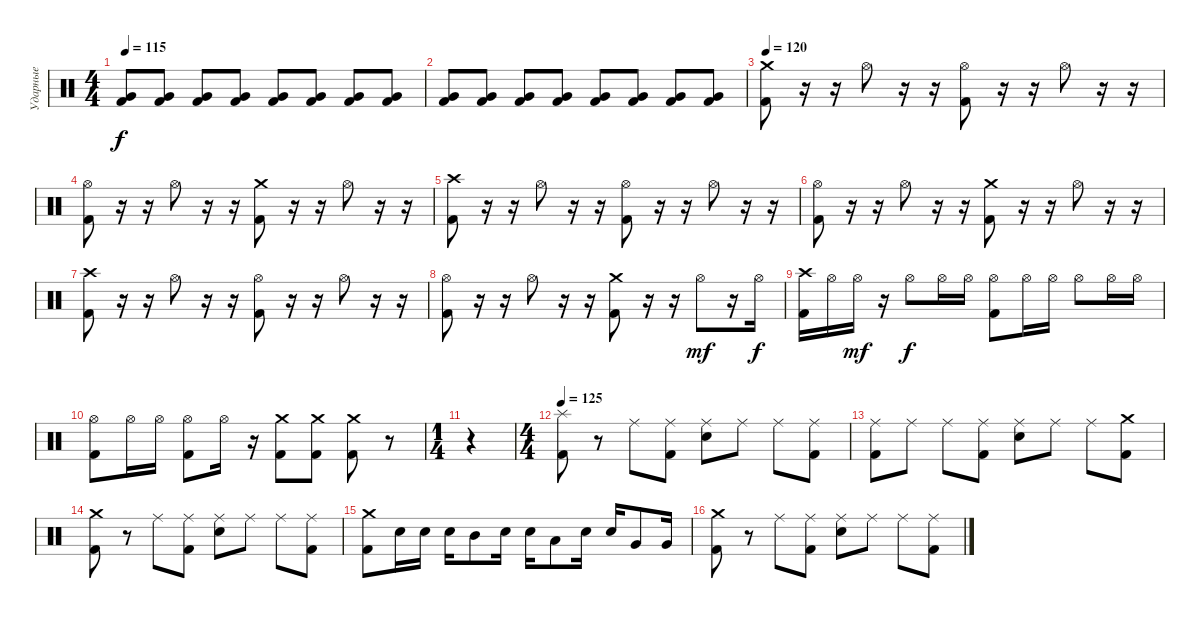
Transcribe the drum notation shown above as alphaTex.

\track ("Ударные" "Ударные") {instrument percussion}
\staff {score}
\articulation defaults
\ts (4 4)
\tempo 115
\clef neutral
\ks c
("Very Low Tom (hit)" "Kick (hit) 2").8{dy f} ("Very Low Tom (hit)" "Kick (hit) 2").8 ("Very Low Tom (hit)" "Kick (hit) 2").8 ("Very Low Tom (hit)" "Kick (hit) 2").8 ("Very Low Tom (hit)" "Kick (hit) 2").8 ("Very Low Tom (hit)" "Kick (hit) 2").8 ("Very Low Tom (hit)" "Kick (hit) 2").8 ("Very Low Tom (hit)" "Kick (hit) 2").8 |
("Very Low Tom (hit)" "Kick (hit) 2").8 ("Very Low Tom (hit)" "Kick (hit) 2").8 ("Very Low Tom (hit)" "Kick (hit) 2").8 ("Very Low Tom (hit)" "Kick (hit) 2").8 ("Very Low Tom (hit)" "Kick (hit) 2").8 ("Very Low Tom (hit)" "Kick (hit) 2").8 ("Very Low Tom (hit)" "Kick (hit) 2").8 ("Very Low Tom (hit)" "Kick (hit) 2").8 |
\tempo 120
("Crash medium (hit)" "Kick (hit) 2").8 r.16 r.16 "Hi-Hat (open)".8 r.16 r.16 ("Hi-Hat (open)" "Kick (hit) 2").8 r.16 r.16 "Hi-Hat (open)".8 r.16 r.16 |
("Hi-Hat (open)" "Kick (hit) 2").8 r.16 r.16 "Hi-Hat (open)".8 r.16 r.16 ("Crash medium (hit)" "Kick (hit) 2").8 r.16 r.16 "Hi-Hat (open)".8 r.16 r.16 |
("Crash high (hit)" "Kick (hit) 2").8 r.16 r.16 "Hi-Hat (open)".8 r.16 r.16 ("Hi-Hat (open)" "Kick (hit) 2").8 r.16 r.16 "Hi-Hat (open)".8 r.16 r.16 |
("Hi-Hat (open)" "Kick (hit) 2").8 r.16 r.16 "Hi-Hat (open)".8 r.16 r.16 ("Crash medium (hit)" "Kick (hit) 2").8 r.16 r.16 "Hi-Hat (open)".8 r.16 r.16 |
("Crash high (hit)" "Kick (hit) 2").8 r.16 r.16 "Hi-Hat (open)".8 r.16 r.16 ("Hi-Hat (open)" "Kick (hit) 2").8 r.16 r.16 "Hi-Hat (open)".8 r.16 r.16 |
("Hi-Hat (open)" "Kick (hit) 2").8 r.16 r.16 "Hi-Hat (open)".8 r.16 r.16 ("Crash medium (hit)" "Kick (hit) 2").8 r.16 r.16 "Hi-Hat (open)".8{dy mf} r.16 "Hi-Hat (open)".16{dy f} |
("Crash high (hit)" "Kick (hit) 2").16 "Hi-Hat (open)".16 "Hi-Hat (open)".16{dy mf} r.16 "Hi-Hat (open)".8{dy f} "Hi-Hat (open)".16 "Hi-Hat (open)".16 ("Hi-Hat (open)" "Kick (hit) 2").8 "Hi-Hat (open)".16 "Hi-Hat (open)".16 "Hi-Hat (open)".8 "Hi-Hat (open)".16 "Hi-Hat (open)".16 |
("Hi-Hat (open)" "Kick (hit) 2").8 "Hi-Hat (open)".16 "Hi-Hat (open)".16 ("Hi-Hat (open)" "Kick (hit) 2").8 "Hi-Hat (open)".16 r.16 ("Crash medium (hit)" "Kick (hit) 2").8 ("Crash medium (hit)" "Kick (hit) 2").8 ("Crash medium (hit)" "Kick (hit) 2").8 r.8 |
\ts (1 4)
r.4 |
\ts (4 4)
\tempo 125
("Splash (hit)" "Kick (hit) 2").8 r.8 "Ride (middle)".8 ("Ride (middle)" "Kick (hit) 2").8 ("Ride (middle)" "Electric Snare (hit)").8 "Ride (middle)".8 "Ride (middle)".8 ("Ride (middle)" "Kick (hit) 2").8 |
("Ride (middle)" "Kick (hit) 2").8 "Ride (middle)".8 "Ride (middle)".8 ("Ride (middle)" "Kick (hit) 2").8 ("Ride (middle)" "Electric Snare (hit)").8 "Ride (middle)".8 "Ride (middle)".8 ("Crash medium (hit)" "Kick (hit) 2").8 |
("Crash medium (hit)" "Kick (hit) 2").8 r.8 "Ride (middle)".8 ("Ride (middle)" "Kick (hit) 2").8 ("Ride (middle)" "Electric Snare (hit)").8 "Ride (middle)".8 "Ride (middle)".8 ("Ride (middle)" "Kick (hit) 2").8 |
("Crash medium (hit)" "Kick (hit) 2").8 "Electric Snare (hit)".16 "Electric Snare (hit)".16 "Electric Snare (hit)".16 "Mid Tom (hit)".8 "Electric Snare (hit)".16 "Electric Snare (hit)".16 "Low Tom (hit)".8 "Electric Snare (hit)".16 "Electric Snare (hit)".16 "Very Low Tom (hit)".8 "Very Low Tom (hit)".16 |
("Crash medium (hit)" "Kick (hit) 2").8 r.8 "Ride (middle)".8 ("Ride (middle)" "Kick (hit) 2").8 ("Ride (middle)" "Electric Snare (hit)").8 "Ride (middle)".8 "Ride (middle)".8 ("Ride (middle)" "Kick (hit) 2").8
